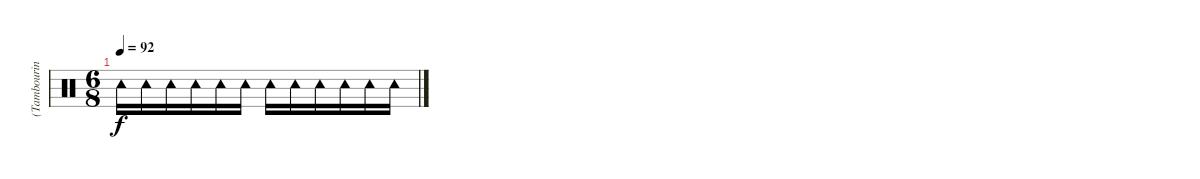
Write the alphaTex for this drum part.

\track ("(Tambourine)" "(Tambourin") {instrument percussion}
\staff {score}
\articulation defaults
\ts (6 8)
\tempo 92
\clef neutral
\ks c "Tambourine (hit)".16{dy f} "Tambourine (hit)".16 "Tambourine (hit)".16 "Tambourine (hit)".16 "Tambourine (hit)".16 "Tambourine (hit)".16 "Tambourine (hit)".16 "Tambourine (hit)".16 "Tambourine (hit)".16 "Tambourine (hit)".16 "Tambourine (hit)".16 "Tambourine (hit)".16
